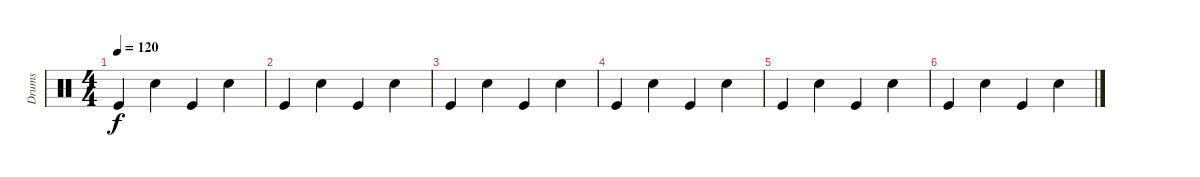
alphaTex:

\track ("Drums" "Drums") {instrument percussion}
\staff {score}
\articulation defaults
\ts (4 4)
\tempo 120
\clef neutral
\ks c "Kick (hit)".4{dy f} "Snare (hit) 2".4 "Kick (hit)".4 "Snare (hit) 2".4
|
"Kick (hit)".4 "Snare (hit) 2".4 "Kick (hit)".4 "Snare (hit) 2".4 |
"Kick (hit)".4 "Snare (hit) 2".4 "Kick (hit)".4 "Snare (hit) 2".4 |
"Kick (hit)".4 "Snare (hit) 2".4 "Kick (hit)".4 "Snare (hit) 2".4 |
"Kick (hit)".4 "Snare (hit) 2".4 "Kick (hit)".4 "Snare (hit) 2".4 |
"Kick (hit)".4 "Snare (hit) 2".4 "Kick (hit)".4 "Snare (hit) 2".4
